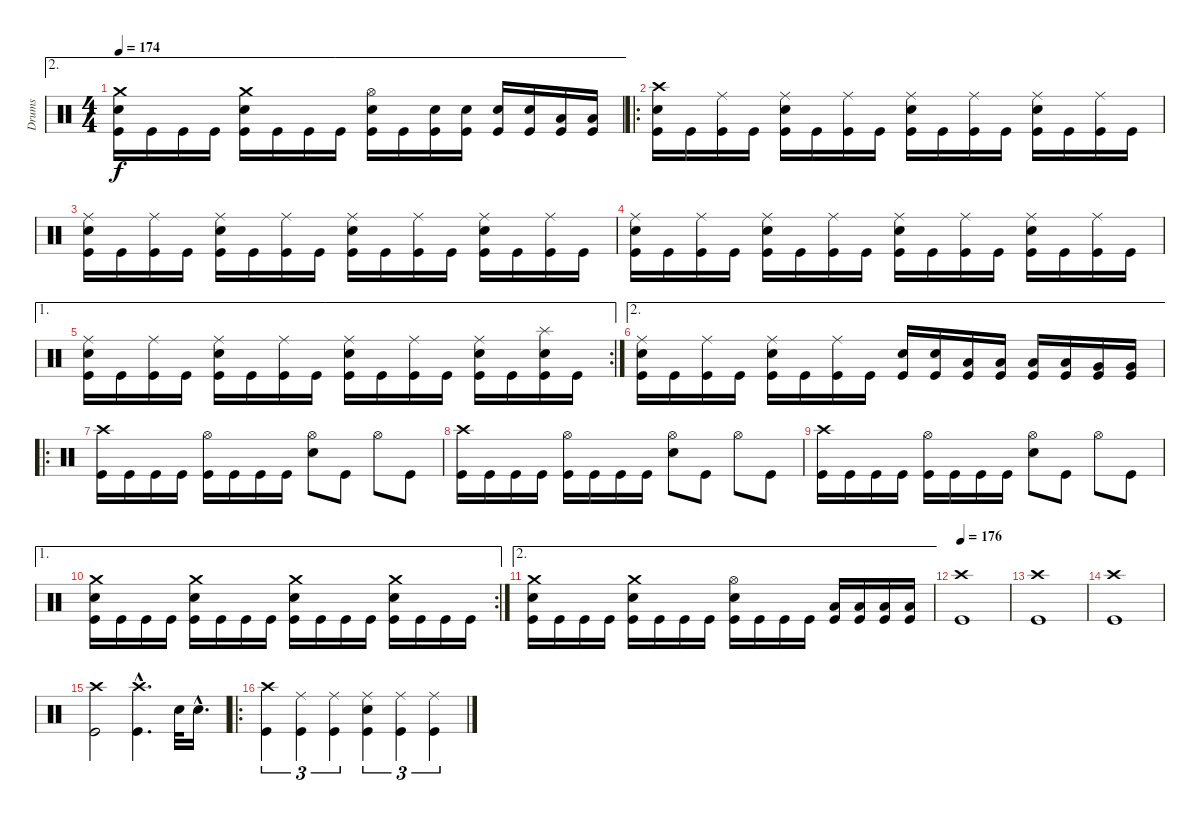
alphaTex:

\track ("Drums" "Drums") {instrument percussion}
\staff {score}
\articulation defaults
\ae 2
\ts (4 4)
\tempo 174
\clef neutral
\ks c
("Crash medium (hit)" "Electric Snare (hit)" "Kick (hit)").16{dy f} "Kick (hit)".16 "Kick (hit)".16 "Kick (hit)".16 ("Crash medium (hit)" "Electric Snare (hit)" "Kick (hit)").16 "Kick (hit)".16 "Kick (hit)".16 "Kick (hit)".16 ("Hi-Hat (open)" "Electric Snare (hit)" "Kick (hit)").16 "Kick (hit)".16 ("Electric Snare (hit)" "Kick (hit)").16 ("Electric Snare (hit)" "Kick (hit)").16 ("Electric Snare (hit)" "Kick (hit)").16 ("Electric Snare (hit)" "Kick (hit)").16 ("Low Tom (hit)" "Kick (hit)").16 ("Low Tom (hit)" "Kick (hit)").16 |
\ro
("Crash high (hit)" "Electric Snare (hit)" "Kick (hit)").16 "Kick (hit)".16 ("Ride (middle)" "Kick (hit)").16 "Kick (hit)".16 ("Ride (middle)" "Electric Snare (hit)" "Kick (hit)").16 "Kick (hit)".16 ("Ride (middle)" "Kick (hit)").16 "Kick (hit)".16 ("Ride (middle)" "Electric Snare (hit)" "Kick (hit)").16 "Kick (hit)".16 ("Ride (middle)" "Kick (hit)").16 "Kick (hit)".16 ("Ride (middle)" "Electric Snare (hit)" "Kick (hit)").16 "Kick (hit)".16 ("Ride (middle)" "Kick (hit)").16 "Kick (hit)".16 |
("Ride (middle)" "Electric Snare (hit)" "Kick (hit)").16 "Kick (hit)".16 ("Ride (middle)" "Kick (hit)").16 "Kick (hit)".16 ("Ride (middle)" "Electric Snare (hit)" "Kick (hit)").16 "Kick (hit)".16 ("Ride (middle)" "Kick (hit)").16 "Kick (hit)".16 ("Ride (middle)" "Electric Snare (hit)" "Kick (hit)").16 "Kick (hit)".16 ("Ride (middle)" "Kick (hit)").16 "Kick (hit)".16 ("Ride (middle)" "Electric Snare (hit)" "Kick (hit)").16 "Kick (hit)".16 ("Ride (middle)" "Kick (hit)").16 "Kick (hit)".16 |
("Ride (middle)" "Electric Snare (hit)" "Kick (hit)").16 "Kick (hit)".16 ("Ride (middle)" "Kick (hit)").16 "Kick (hit)".16 ("Ride (middle)" "Electric Snare (hit)" "Kick (hit)").16 "Kick (hit)".16 ("Ride (middle)" "Kick (hit)").16 "Kick (hit)".16 ("Ride (middle)" "Electric Snare (hit)" "Kick (hit)").16 "Kick (hit)".16 ("Ride (middle)" "Kick (hit)").16 "Kick (hit)".16 ("Ride (middle)" "Electric Snare (hit)" "Kick (hit)").16 "Kick (hit)".16 ("Ride (middle)" "Kick (hit)").16 "Kick (hit)".16 |
\ae 1
\rc 2
("Ride (middle)" "Electric Snare (hit)" "Kick (hit)").16 "Kick (hit)".16 ("Ride (middle)" "Kick (hit)").16 "Kick (hit)".16 ("Ride (middle)" "Electric Snare (hit)" "Kick (hit)").16 "Kick (hit)".16 ("Ride (middle)" "Kick (hit)").16 "Kick (hit)".16 ("Ride (middle)" "Electric Snare (hit)" "Kick (hit)").16 "Kick (hit)".16 ("Ride (middle)" "Kick (hit)").16 "Kick (hit)".16 ("Ride (middle)" "Electric Snare (hit)" "Kick (hit)").16 "Kick (hit)".16 ("Splash (hit)" "Electric Snare (hit)" "Kick (hit)").16 "Kick (hit)".16 |
\ae 2
("Ride (middle)" "Electric Snare (hit)" "Kick (hit)").16 "Kick (hit)".16 ("Ride (middle)" "Kick (hit)").16 "Kick (hit)".16 ("Ride (middle)" "Electric Snare (hit)" "Kick (hit)").16 "Kick (hit)".16 ("Ride (middle)" "Kick (hit)").16 "Kick (hit)".16 ("Electric Snare (hit)" "Kick (hit)").16 ("Electric Snare (hit)" "Kick (hit)").16 ("Low Tom (hit)" "Kick (hit)").16 ("Low Tom (hit)" "Kick (hit)").16 ("Low Tom (hit)" "Kick (hit)").16 ("Low Tom (hit)" "Kick (hit)").16 ("Very Low Tom (hit)" "Kick (hit)").16 ("Very Low Tom (hit)" "Kick (hit)").16 |
\ro
("Crash high (hit)" "Kick (hit)").16 "Kick (hit)".16 "Kick (hit)".16 "Kick (hit)".16 ("Hi-Hat (open)" "Kick (hit)").16 "Kick (hit)".16 "Kick (hit)".16 "Kick (hit)".16 ("Hi-Hat (open)" "Electric Snare (hit)").8 "Kick (hit)".8 "Hi-Hat (open)".8 "Kick (hit)".8 |
("Crash high (hit)" "Kick (hit)").16 "Kick (hit)".16 "Kick (hit)".16 "Kick (hit)".16 ("Hi-Hat (open)" "Kick (hit)").16 "Kick (hit)".16 "Kick (hit)".16 "Kick (hit)".16 ("Hi-Hat (open)" "Electric Snare (hit)").8 "Kick (hit)".8 "Hi-Hat (open)".8 "Kick (hit)".8 |
("Crash high (hit)" "Kick (hit)").16 "Kick (hit)".16 "Kick (hit)".16 "Kick (hit)".16 ("Hi-Hat (open)" "Kick (hit)").16 "Kick (hit)".16 "Kick (hit)".16 "Kick (hit)".16 ("Hi-Hat (open)" "Electric Snare (hit)").8 "Kick (hit)".8 "Hi-Hat (open)".8 "Kick (hit)".8 |
\ae 1
\rc 2
("Crash medium (hit)" "Electric Snare (hit)" "Kick (hit)").16 "Kick (hit)".16 "Kick (hit)".16 "Kick (hit)".16 ("Crash medium (hit)" "Electric Snare (hit)" "Kick (hit)").16 "Kick (hit)".16 "Kick (hit)".16 "Kick (hit)".16 ("Crash medium (hit)" "Electric Snare (hit)" "Kick (hit)").16 "Kick (hit)".16 "Kick (hit)".16 "Kick (hit)".16 ("Crash medium (hit)" "Electric Snare (hit)" "Kick (hit)").16 "Kick (hit)".16 "Kick (hit)".16 "Kick (hit)".16 |
\ae 2
("Crash medium (hit)" "Electric Snare (hit)" "Kick (hit)").16 "Kick (hit)".16 "Kick (hit)".16 "Kick (hit)".16 ("Crash medium (hit)" "Electric Snare (hit)" "Kick (hit)").16 "Kick (hit)".16 "Kick (hit)".16 "Kick (hit)".16 ("Hi-Hat (open)" "Electric Snare (hit)" "Kick (hit)").16 "Kick (hit)".16 "Kick (hit)".16 "Kick (hit)".16 ("Low Tom (hit)" "Kick (hit)").16 ("Low Tom (hit)" "Kick (hit)").16 ("Low Tom (hit)" "Kick (hit)").16 ("Low Tom (hit)" "Kick (hit)").16 |
\tempo 176
("Crash high (hit)" "Kick (hit)").1 |
("Crash high (hit)" "Kick (hit)").1 |
("Crash high (hit)" "Kick (hit)").1 |
("Crash high (hit)" "Kick (hit)").2 ("Crash high (hit)"{hac} "Kick (hit)"{hac}).4{d} "Electric Snare (hit)".32 "Electric Snare (hit)"{hac}.16{d} |
\ro
("Crash high (hit)" "Kick (hit)").4{tu (3 2)} ("Ride (middle)" "Kick (hit)").4{tu (3 2)} ("Ride (middle)" "Kick (hit)").4{tu (3 2)} ("Ride (middle)" "Electric Snare (hit)" "Kick (hit)").4{tu (3 2)} ("Ride (middle)" "Kick (hit)").4{tu (3 2)} ("Ride (middle)" "Kick (hit)").4{tu (3 2)}
